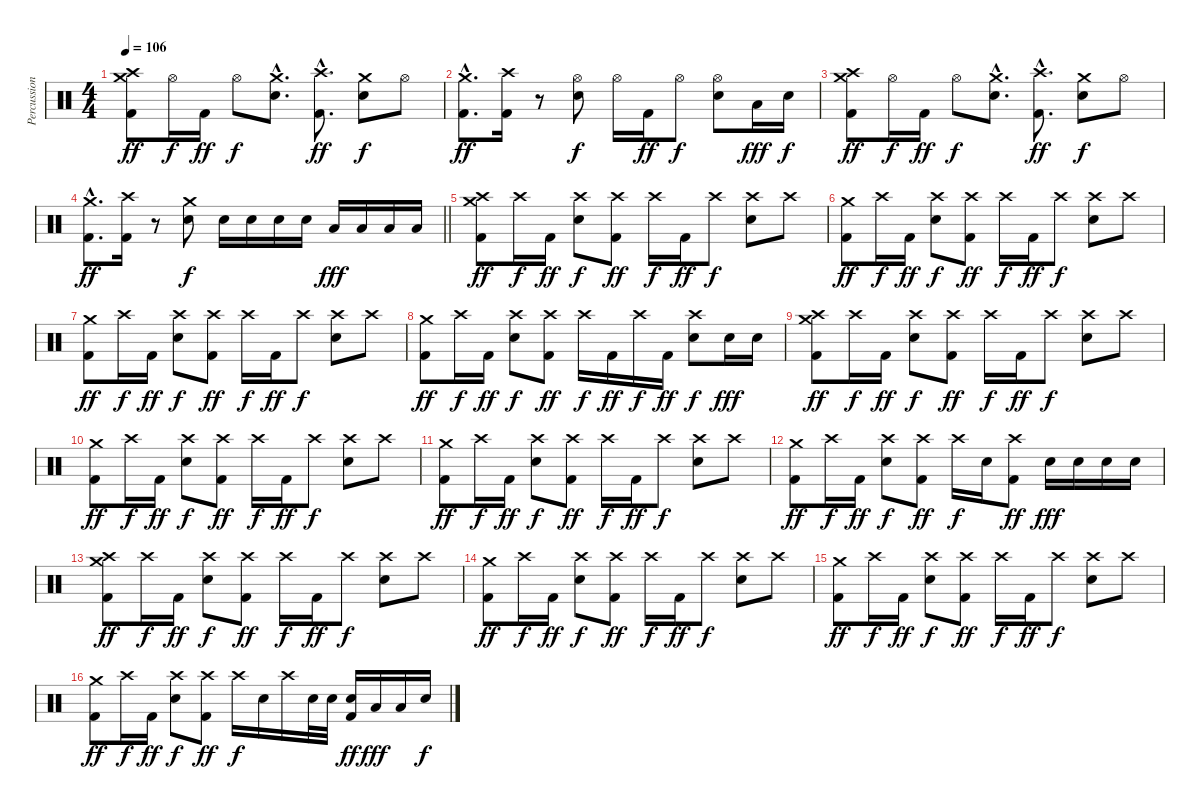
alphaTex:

\track ("Percussion" "Percussion") {instrument percussion}
\staff {score}
\articulation defaults
\ts (4 4)
\tempo 106
\clef neutral
\ks c
("Crash medium (hit)" "Crash high (hit)" "Kick (hit) 2").8{dy ff} "Hi-Hat (open)".16{dy f} "Kick (hit) 2".16{dy ff} "Hi-Hat (open)".8{dy f} ("Crash medium (hit)"{hac} "Electric Snare (hit)"{hac}).8{d} ("Crash high (hit)"{hac} "Kick (hit) 2"{hac}).8{d dy ff} ("Crash medium (hit)" "Electric Snare (hit)").8{dy f} "Hi-Hat (open)".8 |
("Crash medium (hit)"{hac} "Kick (hit) 2"{hac}).8{d dy ff} ("Crash high (hit)" "Kick (hit) 2").16 r.8 ("Hi-Hat (open)" "Electric Snare (hit)").8{dy f} "Hi-Hat (open)".16 "Kick (hit) 2".16{dy ff} "Hi-Hat (open)".8{dy f} ("Hi-Hat (open)" "Electric Snare (hit)").8 "Low Floor Tom (hit)".16{dy fff} "Electric Snare (hit)".16{dy f} |
("Crash medium (hit)" "Crash high (hit)" "Kick (hit) 2").8{dy ff} "Hi-Hat (open)".16{dy f} "Kick (hit) 2".16{dy ff} "Hi-Hat (open)".8{dy f} ("Crash medium (hit)"{hac} "Electric Snare (hit)"{hac}).8{d} ("Crash high (hit)"{hac} "Kick (hit) 2"{hac}).8{d dy ff} ("Crash medium (hit)" "Electric Snare (hit)").8{dy f} "Hi-Hat (open)".8 |
\barLineRight lightlight
("Crash medium (hit)"{hac} "Kick (hit) 2"{hac}).8{d dy ff} ("Crash high (hit)" "Kick (hit) 2").16 r.8 ("Crash medium (hit)" "Electric Snare (hit)").8{dy f} "Electric Snare (hit)".16 "Electric Snare (hit)".16 "Electric Snare (hit)".16 "Electric Snare (hit)".16 "Low Tom (hit)".16{dy fff} "Low Tom (hit)".16 "Low Floor Tom (hit)".16 "Low Floor Tom (hit)".16 |
("Crash medium (hit)" "Crash high (hit)" "Kick (hit) 2").8{dy ff} "Crash high (hit)".16{dy f} "Kick (hit) 2".16{dy ff} ("Crash high (hit)" "Electric Snare (hit)").8{dy f} ("Crash high (hit)" "Kick (hit) 2").8{dy ff} "Crash high (hit)".16{dy f} "Kick (hit) 2".16{dy ff} "Crash high (hit)".8{dy f} ("Crash high (hit)" "Electric Snare (hit)").8 "Crash high (hit)".8 |
("Crash medium (hit)" "Kick (hit) 2").8{dy ff} "Crash high (hit)".16{dy f} "Kick (hit) 2".16{dy ff} ("Crash high (hit)" "Electric Snare (hit)").8{dy f} ("Crash high (hit)" "Kick (hit) 2").8{dy ff} "Crash high (hit)".16{dy f} "Kick (hit) 2".16{dy ff} "Crash high (hit)".8{dy f} ("Crash high (hit)" "Electric Snare (hit)").8 "Crash high (hit)".8 |
("Crash medium (hit)" "Kick (hit) 2").8{dy ff} "Crash high (hit)".16{dy f} "Kick (hit) 2".16{dy ff} ("Crash high (hit)" "Electric Snare (hit)").8{dy f} ("Crash high (hit)" "Kick (hit) 2").8{dy ff} "Crash high (hit)".16{dy f} "Kick (hit) 2".16{dy ff} "Crash high (hit)".8{dy f} ("Crash high (hit)" "Electric Snare (hit)").8 "Crash high (hit)".8 |
("Crash medium (hit)" "Kick (hit) 2").8{dy ff} "Crash high (hit)".16{dy f} "Kick (hit) 2".16{dy ff} ("Crash high (hit)" "Electric Snare (hit)").8{dy f} ("Crash high (hit)" "Kick (hit) 2").8{dy ff} "Crash high (hit)".16{dy f} "Kick (hit) 2".16{dy ff} "Crash high (hit)".16{dy f} "Kick (hit) 2".16{dy ff} ("Crash high (hit)" "Electric Snare (hit)").8{dy f} "Electric Snare (hit)".16{dy fff} "Electric Snare (hit)".16 |
("Crash medium (hit)" "Crash high (hit)" "Kick (hit) 2").8{dy ff} "Crash high (hit)".16{dy f} "Kick (hit) 2".16{dy ff} ("Crash high (hit)" "Electric Snare (hit)").8{dy f} ("Crash high (hit)" "Kick (hit) 2").8{dy ff} "Crash high (hit)".16{dy f} "Kick (hit) 2".16{dy ff} "Crash high (hit)".8{dy f} ("Crash high (hit)" "Electric Snare (hit)").8 "Crash high (hit)".8 |
("Crash medium (hit)" "Kick (hit) 2").8{dy ff} "Crash high (hit)".16{dy f} "Kick (hit) 2".16{dy ff} ("Crash high (hit)" "Electric Snare (hit)").8{dy f} ("Crash high (hit)" "Kick (hit) 2").8{dy ff} "Crash high (hit)".16{dy f} "Kick (hit) 2".16{dy ff} "Crash high (hit)".8{dy f} ("Crash high (hit)" "Electric Snare (hit)").8 "Crash high (hit)".8 |
("Crash medium (hit)" "Kick (hit) 2").8{dy ff} "Crash high (hit)".16{dy f} "Kick (hit) 2".16{dy ff} ("Crash high (hit)" "Electric Snare (hit)").8{dy f} ("Crash high (hit)" "Kick (hit) 2").8{dy ff} "Crash high (hit)".16{dy f} "Kick (hit) 2".16{dy ff} "Crash high (hit)".8{dy f} ("Crash high (hit)" "Electric Snare (hit)").8 "Crash high (hit)".8 |
("Crash medium (hit)" "Kick (hit) 2").8{dy ff} "Crash high (hit)".16{dy f} "Kick (hit) 2".16{dy ff} ("Crash high (hit)" "Electric Snare (hit)").8{dy f} ("Crash high (hit)" "Kick (hit) 2").8{dy ff} "Crash high (hit)".16{dy f} "Electric Snare (hit)".16 ("Crash high (hit)" "Kick (hit) 2").8{dy ff} "Electric Snare (hit)".16{dy fff} "Electric Snare (hit)".16 "Electric Snare (hit)".16 "Electric Snare (hit)".16 |
("Crash medium (hit)" "Crash high (hit)" "Kick (hit) 2").8{dy ff} "Crash high (hit)".16{dy f} "Kick (hit) 2".16{dy ff} ("Crash high (hit)" "Electric Snare (hit)").8{dy f} ("Crash high (hit)" "Kick (hit) 2").8{dy ff} "Crash high (hit)".16{dy f} "Kick (hit) 2".16{dy ff} "Crash high (hit)".8{dy f} ("Crash high (hit)" "Electric Snare (hit)").8 "Crash high (hit)".8 |
("Crash medium (hit)" "Kick (hit) 2").8{dy ff} "Crash high (hit)".16{dy f} "Kick (hit) 2".16{dy ff} ("Crash high (hit)" "Electric Snare (hit)").8{dy f} ("Crash high (hit)" "Kick (hit) 2").8{dy ff} "Crash high (hit)".16{dy f} "Kick (hit) 2".16{dy ff} "Crash high (hit)".8{dy f} ("Crash high (hit)" "Electric Snare (hit)").8 "Crash high (hit)".8 |
("Crash medium (hit)" "Kick (hit) 2").8{dy ff} "Crash high (hit)".16{dy f} "Kick (hit) 2".16{dy ff} ("Crash high (hit)" "Electric Snare (hit)").8{dy f} ("Crash high (hit)" "Kick (hit) 2").8{dy ff} "Crash high (hit)".16{dy f} "Kick (hit) 2".16{dy ff} "Crash high (hit)".8{dy f} ("Crash high (hit)" "Electric Snare (hit)").8 "Crash high (hit)".8 |
("Crash medium (hit)" "Kick (hit) 2").8{dy ff} "Crash high (hit)".16{dy f} "Kick (hit) 2".16{dy ff} ("Crash high (hit)" "Electric Snare (hit)").8{dy f} ("Crash high (hit)" "Kick (hit) 2").8{dy ff} "Crash high (hit)".16{dy f} "Electric Snare (hit)".16 "Crash high (hit)".16 "Electric Snare (hit)".32 "Electric Snare (hit)".32 ("Electric Snare (hit)" "Kick (hit) 2").16{dy ff} "Low Tom (hit)".16{dy fff} "Low Floor Tom (hit)".16 "Electric Snare (hit)".16{dy f}
